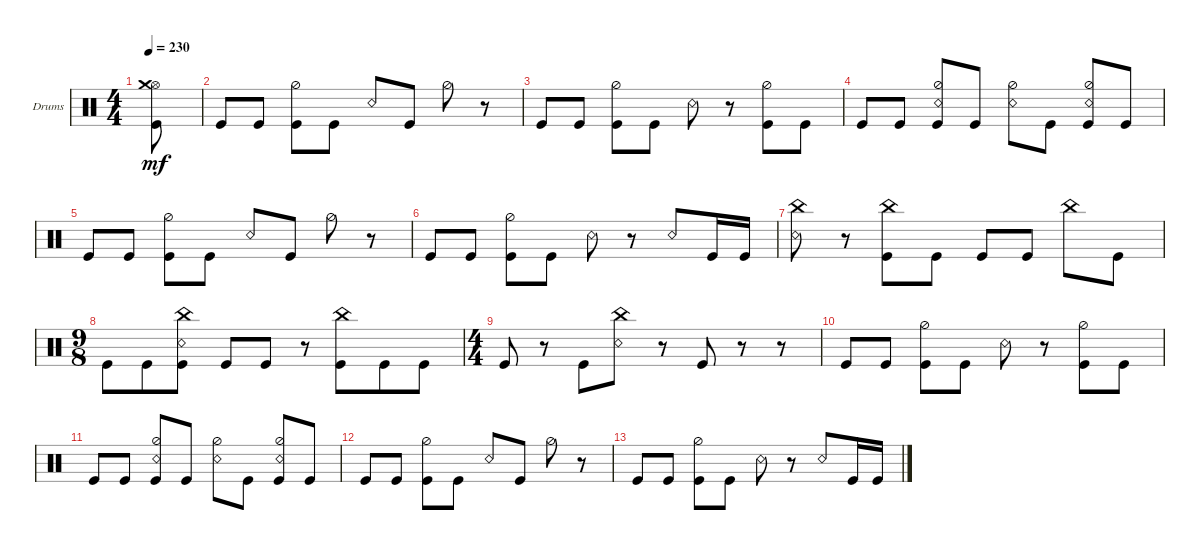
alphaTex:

\bracketExtendMode groupsimilarinstruments
\firstSystemTrackNameOrientation horizontal
\otherSystemsTrackNameOrientation horizontal
\track ("Drumkit" "Drums") {solo instrument percussion}
\staff {score}
\articulation defaults
\ts (4 4)
\tempo 230
\clef neutral
\ks c
("Kick (hit)" "Hi-Hat (open)" "Crash medium (hit)").8{dy mf} |
"Kick (hit)".8 "Kick (hit)".8 ("Kick (hit)" "Hi-Hat (half)").8 "Kick (hit)".8 "Snare (rim shot)".8 "Kick (hit)".8 "Hi-Hat (half)".8 r.8 |
"Kick (hit)".8 "Kick (hit)".8 ("Kick (hit)" "Hi-Hat (half)").8 "Kick (hit)".8 "Snare (rim shot)".8 r.8 ("Kick (hit)" "Hi-Hat (half)").8 "Kick (hit)".8 |
"Kick (hit)".8 "Kick (hit)".8 ("Kick (hit)" "Snare (rim shot)" "Hi-Hat (half)").8 "Kick (hit)".8 ("Snare (rim shot)" "Hi-Hat (half)").8 "Kick (hit)".8 ("Kick (hit)" "Snare (rim shot)" "Hi-Hat (half)").8 "Kick (hit)".8 |
"Kick (hit)".8 "Kick (hit)".8 ("Kick (hit)" "Hi-Hat (half)").8 "Kick (hit)".8 "Snare (rim shot)".8 "Kick (hit)".8 "Hi-Hat (half)".8 r.8 |
"Kick (hit)".8 "Kick (hit)".8 ("Kick (hit)" "Hi-Hat (half)").8 "Kick (hit)".8 "Snare (rim shot)".8 r.8 "Snare (rim shot)".8 "Kick (hit)".16 "Kick (hit)".16 |
("China (hit)" "Snare (rim shot)").8 r.8 ("Kick (hit)" "China (hit)").8 "Kick (hit)".8 "Kick (hit)".8 "Kick (hit)".8 "China (hit)".8 "Kick (hit)".8 |
\ts (9 8)
"Kick (hit)".8 "Kick (hit)".8 ("Kick (hit)" "Snare (rim shot)" "China (hit)").8 "Kick (hit)".8 "Kick (hit)".8 r.8 ("Kick (hit)" "China (hit)").8 "Kick (hit)".8 "Kick (hit)".8 |
\ts (4 4)
"Kick (hit)".8 r.8 "Kick (hit)".8 ("China (hit)" "Snare (rim shot)").8 r.8 "Kick (hit)".8 r.8 r.8 |
"Kick (hit)".8 "Kick (hit)".8 ("Kick (hit)" "Hi-Hat (half)").8 "Kick (hit)".8 "Snare (rim shot)".8 r.8 ("Kick (hit)" "Hi-Hat (half)").8 "Kick (hit)".8 |
"Kick (hit)".8 "Kick (hit)".8 ("Kick (hit)" "Snare (rim shot)" "Hi-Hat (half)").8 "Kick (hit)".8 ("Snare (rim shot)" "Hi-Hat (half)").8 "Kick (hit)".8 ("Kick (hit)" "Snare (rim shot)" "Hi-Hat (half)").8 "Kick (hit)".8 |
"Kick (hit)".8 "Kick (hit)".8 ("Kick (hit)" "Hi-Hat (half)").8 "Kick (hit)".8 "Snare (rim shot)".8 "Kick (hit)".8 "Hi-Hat (half)".8 r.8 |
"Kick (hit)".8 "Kick (hit)".8 ("Kick (hit)" "Hi-Hat (half)").8 "Kick (hit)".8 "Snare (rim shot)".8 r.8 "Snare (rim shot)".8 "Kick (hit)".16 "Kick (hit)".16
